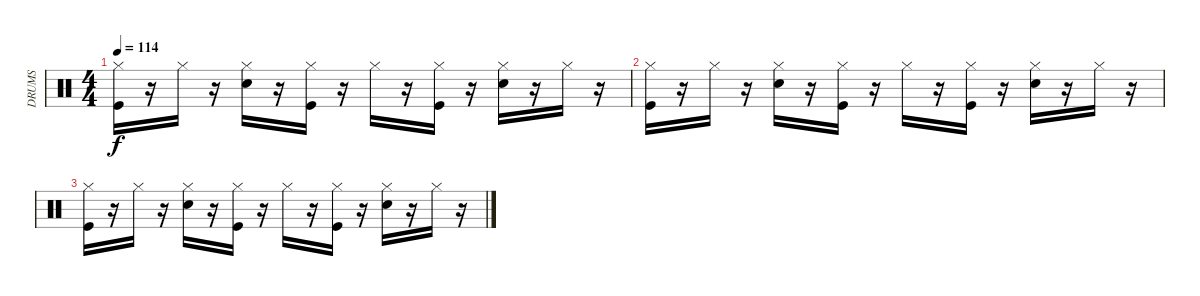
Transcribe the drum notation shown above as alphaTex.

\track ("DRUMS" "DRUMS") {instrument percussion}
\staff {score}
\articulation defaults
\ts (4 4)
\tempo 114
\clef neutral
\ks c
("Hi-Hat (closed)" "Kick (hit)").16{dy f} r.16 "Hi-Hat (closed)".16 r.16 ("Hi-Hat (closed)" "Electric Snare (hit)").16 r.16 ("Hi-Hat (closed)" "Kick (hit)").16 r.16 "Hi-Hat (closed)".16 r.16 ("Hi-Hat (closed)" "Kick (hit)").16 r.16 ("Hi-Hat (closed)" "Electric Snare (hit)").16 r.16 "Hi-Hat (closed)".16 r.16 |
("Hi-Hat (closed)" "Kick (hit)").16 r.16 "Hi-Hat (closed)".16 r.16 ("Hi-Hat (closed)" "Electric Snare (hit)").16 r.16 ("Hi-Hat (closed)" "Kick (hit)").16 r.16 "Hi-Hat (closed)".16 r.16 ("Hi-Hat (closed)" "Kick (hit)").16 r.16 ("Hi-Hat (closed)" "Electric Snare (hit)").16 r.16 "Hi-Hat (closed)".16 r.16 |
("Hi-Hat (closed)" "Kick (hit)").16 r.16 "Hi-Hat (closed)".16 r.16 ("Hi-Hat (closed)" "Electric Snare (hit)").16 r.16 ("Hi-Hat (closed)" "Kick (hit)").16 r.16 "Hi-Hat (closed)".16 r.16 ("Hi-Hat (closed)" "Kick (hit)").16 r.16 ("Hi-Hat (closed)" "Electric Snare (hit)").16 r.16 "Hi-Hat (closed)".16 r.16
